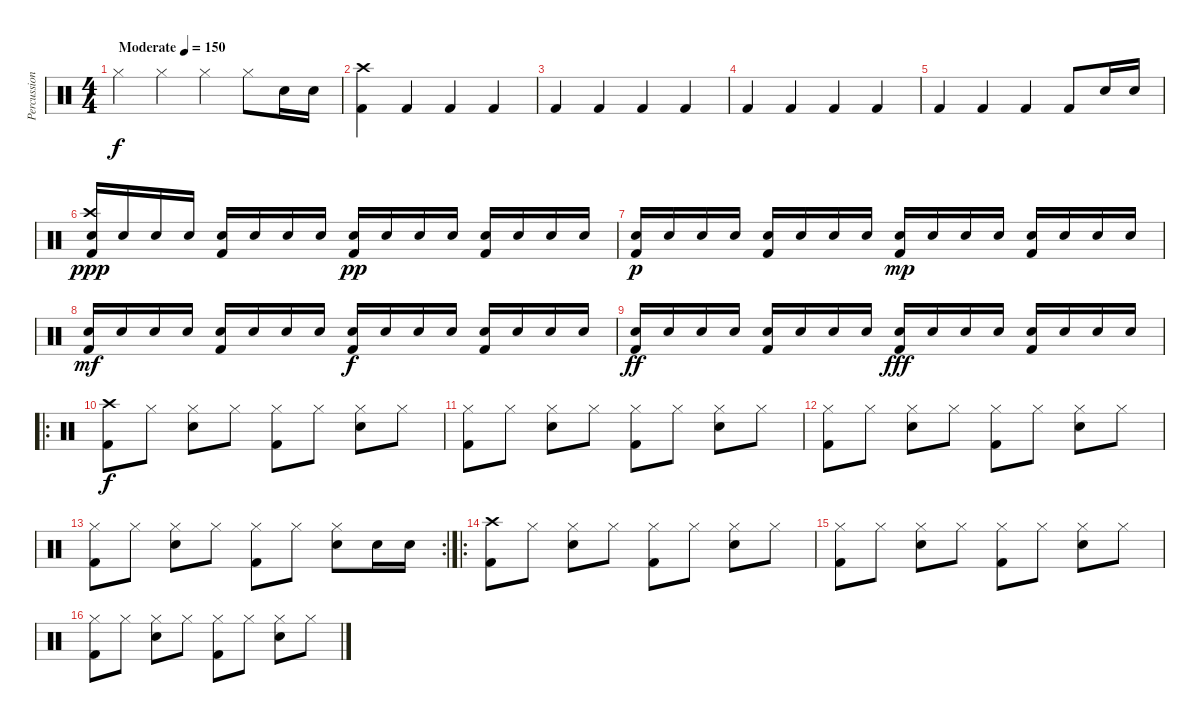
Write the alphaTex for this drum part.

\track ("Percussion" "Percussion") {instrument percussion}
\staff {score}
\articulation defaults
\ts (4 4)
\tempo (150 "Moderate")
\clef neutral
\ks c "Hi-Hat (closed)".4{dy f} "Hi-Hat (closed)".4 "Hi-Hat (closed)".4 "Hi-Hat (closed)".8 "Snare (hit) 2".16 "Snare (hit) 2".16
|
("Crash high (hit)" "Kick (hit) 2").4 "Kick (hit) 2".4 "Kick (hit) 2".4 "Kick (hit) 2".4 |
"Kick (hit) 2".4 "Kick (hit) 2".4 "Kick (hit) 2".4 "Kick (hit) 2".4 |
"Kick (hit) 2".4 "Kick (hit) 2".4 "Kick (hit) 2".4 "Kick (hit) 2".4 |
"Kick (hit) 2".4 "Kick (hit) 2".4 "Kick (hit) 2".4 "Kick (hit) 2".8 "Snare (hit) 2".16 "Snare (hit) 2".16 |
("Crash high (hit)" "Snare (hit) 2" "Kick (hit) 2").16{dy ppp} "Snare (hit) 2".16 "Snare (hit) 2".16 "Snare (hit) 2".16 ("Snare (hit) 2" "Kick (hit) 2").16 "Snare (hit) 2".16 "Snare (hit) 2".16 "Snare (hit) 2".16 ("Snare (hit) 2" "Kick (hit) 2").16{dy pp} "Snare (hit) 2".16 "Snare (hit) 2".16 "Snare (hit) 2".16 ("Snare (hit) 2" "Kick (hit) 2").16 "Snare (hit) 2".16 "Snare (hit) 2".16 "Snare (hit) 2".16 |
("Snare (hit) 2" "Kick (hit) 2").16{dy p} "Snare (hit) 2".16 "Snare (hit) 2".16 "Snare (hit) 2".16 ("Snare (hit) 2" "Kick (hit) 2").16 "Snare (hit) 2".16 "Snare (hit) 2".16 "Snare (hit) 2".16 ("Snare (hit) 2" "Kick (hit) 2").16{dy mp} "Snare (hit) 2".16 "Snare (hit) 2".16 "Snare (hit) 2".16 ("Snare (hit) 2" "Kick (hit) 2").16 "Snare (hit) 2".16 "Snare (hit) 2".16 "Snare (hit) 2".16 |
("Snare (hit) 2" "Kick (hit) 2").16{dy mf} "Snare (hit) 2".16 "Snare (hit) 2".16 "Snare (hit) 2".16 ("Snare (hit) 2" "Kick (hit) 2").16 "Snare (hit) 2".16 "Snare (hit) 2".16 "Snare (hit) 2".16 ("Snare (hit) 2" "Kick (hit) 2").16{dy f} "Snare (hit) 2".16 "Snare (hit) 2".16 "Snare (hit) 2".16 ("Snare (hit) 2" "Kick (hit) 2").16 "Snare (hit) 2".16 "Snare (hit) 2".16 "Snare (hit) 2".16 |
("Snare (hit) 2" "Kick (hit) 2").16{dy ff} "Snare (hit) 2".16 "Snare (hit) 2".16 "Snare (hit) 2".16 ("Snare (hit) 2" "Kick (hit) 2").16 "Snare (hit) 2".16 "Snare (hit) 2".16 "Snare (hit) 2".16 ("Snare (hit) 2" "Kick (hit) 2").16{dy fff} "Snare (hit) 2".16 "Snare (hit) 2".16 "Snare (hit) 2".16 ("Snare (hit) 2" "Kick (hit) 2").16 "Snare (hit) 2".16 "Snare (hit) 2".16 "Snare (hit) 2".16 |
\ro
("Crash high (hit)" "Kick (hit) 2").8{dy f} "Hi-Hat (closed)".8 ("Hi-Hat (closed)" "Snare (hit) 2").8 "Hi-Hat (closed)".8 ("Hi-Hat (closed)" "Kick (hit) 2").8 "Hi-Hat (closed)".8 ("Hi-Hat (closed)" "Snare (hit) 2").8 "Hi-Hat (closed)".8 |
("Hi-Hat (closed)" "Kick (hit) 2").8 "Hi-Hat (closed)".8 ("Hi-Hat (closed)" "Snare (hit) 2").8 "Hi-Hat (closed)".8 ("Hi-Hat (closed)" "Kick (hit) 2").8 "Hi-Hat (closed)".8 ("Hi-Hat (closed)" "Snare (hit) 2").8 "Hi-Hat (closed)".8 |
("Hi-Hat (closed)" "Kick (hit) 2").8 "Hi-Hat (closed)".8 ("Hi-Hat (closed)" "Snare (hit) 2").8 "Hi-Hat (closed)".8 ("Hi-Hat (closed)" "Kick (hit) 2").8 "Hi-Hat (closed)".8 ("Hi-Hat (closed)" "Snare (hit) 2").8 "Hi-Hat (closed)".8 |
\rc 2
("Hi-Hat (closed)" "Kick (hit) 2").8 "Hi-Hat (closed)".8 ("Hi-Hat (closed)" "Snare (hit) 2").8 "Hi-Hat (closed)".8 ("Hi-Hat (closed)" "Kick (hit) 2").8 "Hi-Hat (closed)".8 ("Hi-Hat (closed)" "Snare (hit) 2").8 "Snare (hit) 2".16 "Snare (hit) 2".16 |
\ro
("Crash high (hit)" "Kick (hit) 2").8 "Hi-Hat (closed)".8 ("Hi-Hat (closed)" "Snare (hit) 2").8 "Hi-Hat (closed)".8 ("Hi-Hat (closed)" "Kick (hit) 2").8 "Hi-Hat (closed)".8 ("Hi-Hat (closed)" "Snare (hit) 2").8 "Hi-Hat (closed)".8 |
("Hi-Hat (closed)" "Kick (hit) 2").8 "Hi-Hat (closed)".8 ("Hi-Hat (closed)" "Snare (hit) 2").8 "Hi-Hat (closed)".8 ("Hi-Hat (closed)" "Kick (hit) 2").8 "Hi-Hat (closed)".8 ("Hi-Hat (closed)" "Snare (hit) 2").8 "Hi-Hat (closed)".8 |
("Hi-Hat (closed)" "Kick (hit) 2").8 "Hi-Hat (closed)".8 ("Hi-Hat (closed)" "Snare (hit) 2").8 "Hi-Hat (closed)".8 ("Hi-Hat (closed)" "Kick (hit) 2").8 "Hi-Hat (closed)".8 ("Hi-Hat (closed)" "Snare (hit) 2").8 "Hi-Hat (closed)".8
